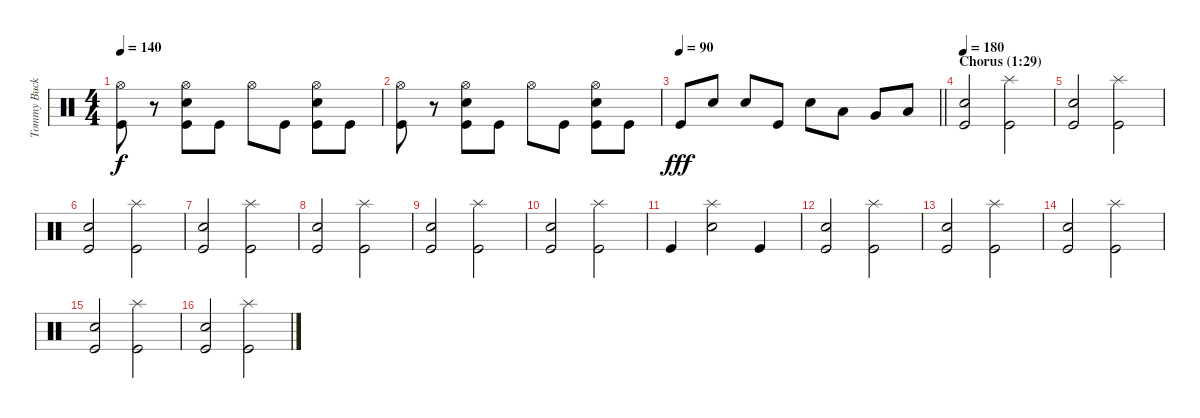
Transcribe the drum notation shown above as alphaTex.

\track ("Tommy Buckly (drums)" "Tommy Buck") {instrument percussion}
\staff {score}
\articulation defaults
\ts (4 4)
\tempo 140
\clef neutral
\ks c
("Hi-Hat (open)" "Kick (hit)").8{dy f} r.8 ("Hi-Hat (open)" "Electric Snare (hit)" "Kick (hit)").8 "Kick (hit)".8 "Hi-Hat (open)".8 "Kick (hit)".8 ("Hi-Hat (open)" "Electric Snare (hit)" "Kick (hit)").8 "Kick (hit)".8 |
("Hi-Hat (open)" "Kick (hit)").8 r.8 ("Hi-Hat (open)" "Electric Snare (hit)" "Kick (hit)").8 "Kick (hit)".8 "Hi-Hat (open)".8 "Kick (hit)".8 ("Hi-Hat (open)" "Electric Snare (hit)" "Kick (hit)").8 "Kick (hit)".8 |
\tempo 90
\barLineRight lightlight "Kick (hit)".8{dy fff} "Electric Snare (hit)".8 "Electric Snare (hit)".8 "Kick (hit)".8 "Electric Snare (hit)".8 "Low Tom (hit)".8 "Very Low Tom (hit)".8 "Low Floor Tom (hit)".8
|
\section ("" "Chorus (1:29)")
\tempo 180
("Electric Snare (hit)" "Kick (hit)").2 ("Splash (hit)" "Kick (hit)").2 |
("Electric Snare (hit)" "Kick (hit)").2 ("Splash (hit)" "Kick (hit)").2 |
("Electric Snare (hit)" "Kick (hit)").2 ("Splash (hit)" "Kick (hit)").2 |
("Electric Snare (hit)" "Kick (hit)").2 ("Splash (hit)" "Kick (hit)").2 |
("Electric Snare (hit)" "Kick (hit)").2 ("Splash (hit)" "Kick (hit)").2 |
("Electric Snare (hit)" "Kick (hit)").2 ("Splash (hit)" "Kick (hit)").2 |
("Electric Snare (hit)" "Kick (hit)").2 ("Splash (hit)" "Kick (hit)").2 |
"Kick (hit)".4 ("Splash (hit)" "Electric Snare (hit)").2 "Kick (hit)".4 |
("Electric Snare (hit)" "Kick (hit)").2 ("Splash (hit)" "Kick (hit)").2 |
("Electric Snare (hit)" "Kick (hit)").2 ("Splash (hit)" "Kick (hit)").2 |
("Electric Snare (hit)" "Kick (hit)").2 ("Splash (hit)" "Kick (hit)").2 |
("Electric Snare (hit)" "Kick (hit)").2 ("Splash (hit)" "Kick (hit)").2 |
("Electric Snare (hit)" "Kick (hit)").2 ("Splash (hit)" "Kick (hit)").2
